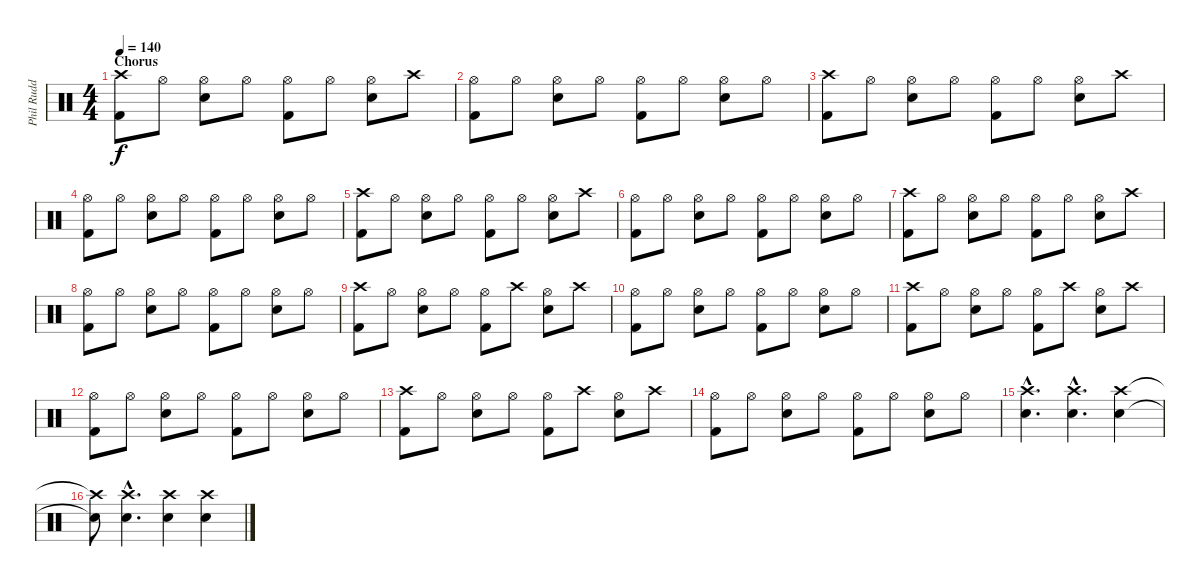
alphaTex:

\track ("Phil Rudd" "Phil Rudd") {instrument percussion}
\staff {score}
\articulation defaults
\ts (4 4)
\section ("" "Chorus")
\tempo 140
\clef neutral
\ks c
("Crash high (hit)" "Kick (hit) 2").8{dy f} "Hi-Hat (open)".8 ("Hi-Hat (open)" "Snare (hit) 2").8 "Hi-Hat (open)".8 ("Hi-Hat (open)" "Kick (hit) 2").8 "Hi-Hat (open)".8 ("Hi-Hat (open)" "Snare (hit) 2").8 "Crash high (hit)".8 |
("Hi-Hat (open)" "Kick (hit) 2").8 "Hi-Hat (open)".8 ("Hi-Hat (open)" "Snare (hit) 2").8 "Hi-Hat (open)".8 ("Hi-Hat (open)" "Kick (hit) 2").8 "Hi-Hat (open)".8 ("Hi-Hat (open)" "Snare (hit) 2").8 "Hi-Hat (open)".8 |
("Crash high (hit)" "Kick (hit) 2").8 "Hi-Hat (open)".8 ("Hi-Hat (open)" "Snare (hit) 2").8 "Hi-Hat (open)".8 ("Hi-Hat (open)" "Kick (hit) 2").8 "Hi-Hat (open)".8 ("Hi-Hat (open)" "Snare (hit) 2").8 "Crash high (hit)".8 |
("Hi-Hat (open)" "Kick (hit) 2").8 "Hi-Hat (open)".8 ("Hi-Hat (open)" "Snare (hit) 2").8 "Hi-Hat (open)".8 ("Hi-Hat (open)" "Kick (hit) 2").8 "Hi-Hat (open)".8 ("Hi-Hat (open)" "Snare (hit) 2").8 "Hi-Hat (open)".8 |
("Crash high (hit)" "Kick (hit) 2").8 "Hi-Hat (open)".8 ("Hi-Hat (open)" "Snare (hit) 2").8 "Hi-Hat (open)".8 ("Hi-Hat (open)" "Kick (hit) 2").8 "Hi-Hat (open)".8 ("Hi-Hat (open)" "Snare (hit) 2").8 "Crash high (hit)".8 |
("Hi-Hat (open)" "Kick (hit) 2").8 "Hi-Hat (open)".8 ("Hi-Hat (open)" "Snare (hit) 2").8 "Hi-Hat (open)".8 ("Hi-Hat (open)" "Kick (hit) 2").8 "Hi-Hat (open)".8 ("Hi-Hat (open)" "Snare (hit) 2").8 "Hi-Hat (open)".8 |
("Crash high (hit)" "Kick (hit) 2").8 "Hi-Hat (open)".8 ("Hi-Hat (open)" "Snare (hit) 2").8 "Hi-Hat (open)".8 ("Hi-Hat (open)" "Kick (hit) 2").8 "Hi-Hat (open)".8 ("Hi-Hat (open)" "Snare (hit) 2").8 "Crash high (hit)".8 |
("Hi-Hat (open)" "Kick (hit) 2").8 "Hi-Hat (open)".8 ("Hi-Hat (open)" "Snare (hit) 2").8 "Hi-Hat (open)".8 ("Hi-Hat (open)" "Kick (hit) 2").8 "Hi-Hat (open)".8 ("Hi-Hat (open)" "Snare (hit) 2").8 "Hi-Hat (open)".8 |
("Crash high (hit)" "Kick (hit) 2").8 "Hi-Hat (open)".8 ("Hi-Hat (open)" "Snare (hit) 2").8 "Hi-Hat (open)".8 ("Hi-Hat (open)" "Kick (hit) 2").8 "Crash high (hit)".8 ("Hi-Hat (open)" "Snare (hit) 2").8 "Crash high (hit)".8 |
("Hi-Hat (open)" "Kick (hit) 2").8 "Hi-Hat (open)".8 ("Hi-Hat (open)" "Snare (hit) 2").8 "Hi-Hat (open)".8 ("Hi-Hat (open)" "Kick (hit) 2").8 "Hi-Hat (open)".8 ("Hi-Hat (open)" "Snare (hit) 2").8 "Hi-Hat (open)".8 |
("Crash high (hit)" "Kick (hit) 2").8 "Hi-Hat (open)".8 ("Hi-Hat (open)" "Snare (hit) 2").8 "Hi-Hat (open)".8 ("Hi-Hat (open)" "Kick (hit) 2").8 "Crash high (hit)".8 ("Hi-Hat (open)" "Snare (hit) 2").8 "Crash high (hit)".8 |
("Hi-Hat (open)" "Kick (hit) 2").8 "Hi-Hat (open)".8 ("Hi-Hat (open)" "Snare (hit) 2").8 "Hi-Hat (open)".8 ("Hi-Hat (open)" "Kick (hit) 2").8 "Hi-Hat (open)".8 ("Hi-Hat (open)" "Snare (hit) 2").8 "Hi-Hat (open)".8 |
("Crash high (hit)" "Kick (hit) 2").8 "Hi-Hat (open)".8 ("Hi-Hat (open)" "Snare (hit) 2").8 "Hi-Hat (open)".8 ("Hi-Hat (open)" "Kick (hit) 2").8 "Crash high (hit)".8 ("Hi-Hat (open)" "Snare (hit) 2").8 "Crash high (hit)".8 |
("Hi-Hat (open)" "Kick (hit) 2").8 "Hi-Hat (open)".8 ("Hi-Hat (open)" "Snare (hit) 2").8 "Hi-Hat (open)".8 ("Hi-Hat (open)" "Kick (hit) 2").8 "Hi-Hat (open)".8 ("Hi-Hat (open)" "Snare (hit) 2").8 "Hi-Hat (open)".8 |
("Crash high (hit)"{hac} "Snare (hit) 2"{hac}).4{d} ("Crash high (hit)"{hac} "Snare (hit) 2"{hac}).4{d} ("Crash high (hit)" "Snare (hit) 2").4 |
("Crash high (hit)"{t} "Snare (hit) 2"{t}).8 ("Crash high (hit)"{hac} "Snare (hit) 2"{hac}).4{d} ("Crash high (hit)" "Snare (hit) 2").4 ("Crash high (hit)" "Snare (hit) 2").4
